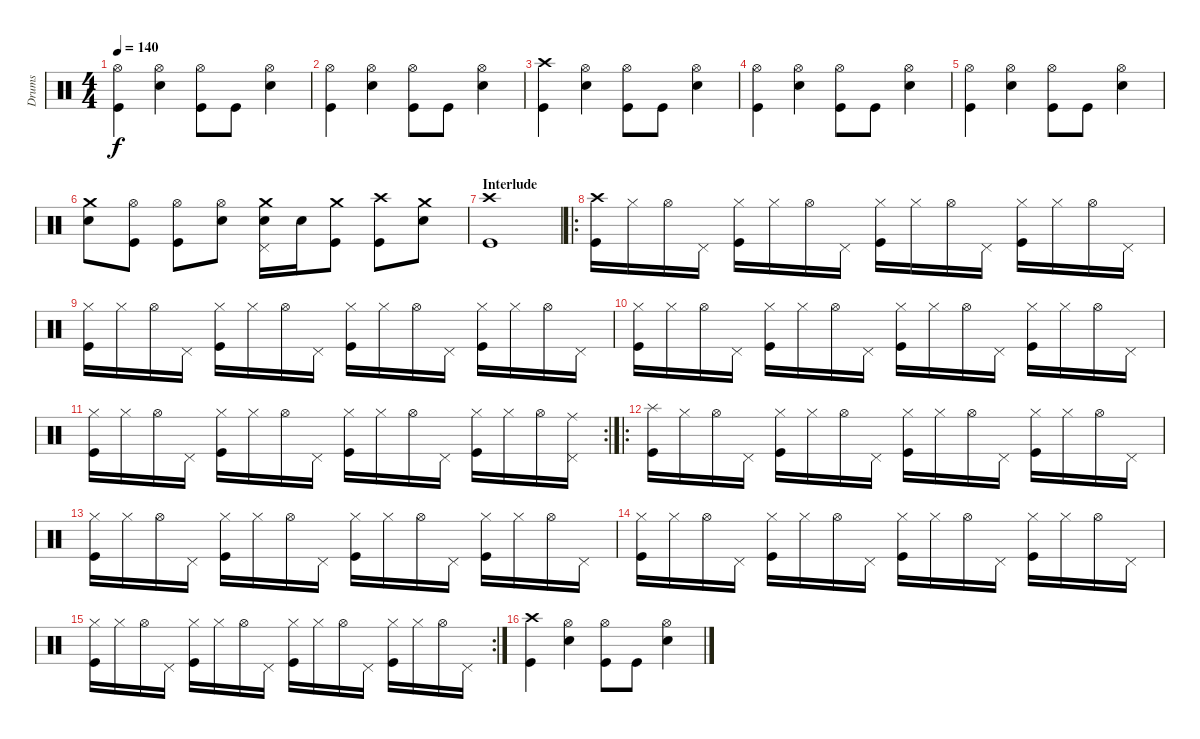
\track ("Drums" "Drums") {instrument percussion}
\staff {score}
\articulation defaults
\ts (4 4)
\tempo 140
\clef neutral
\ks c
("Hi-Hat (open)" "Kick (hit)").4{dy f} ("Hi-Hat (open)" "Electric Snare (hit)").4 ("Hi-Hat (open)" "Kick (hit)").8 "Kick (hit)".8 ("Hi-Hat (open)" "Electric Snare (hit)").4 |
("Hi-Hat (open)" "Kick (hit)").4 ("Hi-Hat (open)" "Electric Snare (hit)").4 ("Hi-Hat (open)" "Kick (hit)").8 "Kick (hit)".8 ("Hi-Hat (open)" "Electric Snare (hit)").4 |
("Crash high (hit)" "Kick (hit)").4 ("Hi-Hat (open)" "Electric Snare (hit)").4 ("Hi-Hat (open)" "Kick (hit)").8 "Kick (hit)".8 ("Hi-Hat (open)" "Electric Snare (hit)").4 |
("Hi-Hat (open)" "Kick (hit)").4 ("Hi-Hat (open)" "Electric Snare (hit)").4 ("Hi-Hat (open)" "Kick (hit)").8 "Kick (hit)".8 ("Hi-Hat (open)" "Electric Snare (hit)").4 |
("Hi-Hat (open)" "Kick (hit)").4 ("Hi-Hat (open)" "Electric Snare (hit)").4 ("Hi-Hat (open)" "Kick (hit)").8 "Kick (hit)".8 ("Hi-Hat (open)" "Electric Snare (hit)").4 |
("Crash medium (hit)" "Electric Snare (hit)").8 ("Hi-Hat (open)" "Kick (hit)").8 ("Hi-Hat (open)" "Kick (hit)").8 ("Hi-Hat (open)" "Electric Snare (hit)").8 ("Crash medium (hit)" "Pedal Hi-Hat (hit)" "Electric Snare (hit)").16 "Electric Snare (hit)".16 ("Crash medium (hit)" "Kick (hit)").8 ("Crash high (hit)" "Kick (hit)").8 ("Crash medium (hit)" "Electric Snare (hit)").8 |
\section ("" "Interlude")
("Crash high (hit)" "Kick (hit)").1 |
\ro
("Crash high (hit)" "Kick (hit)").16 "Hi-Hat (closed)".16 "Hi-Hat (open)".16 "Pedal Hi-Hat (hit)".16 ("Hi-Hat (closed)" "Kick (hit)").16 "Hi-Hat (closed)".16 "Hi-Hat (open)".16 "Pedal Hi-Hat (hit)".16 ("Hi-Hat (closed)" "Kick (hit)").16 "Hi-Hat (closed)".16 "Hi-Hat (open)".16 "Pedal Hi-Hat (hit)".16 ("Hi-Hat (closed)" "Kick (hit)").16 "Hi-Hat (closed)".16 "Hi-Hat (open)".16 "Pedal Hi-Hat (hit)".16 |
("Hi-Hat (closed)" "Kick (hit)").16 "Hi-Hat (closed)".16 "Hi-Hat (open)".16 "Pedal Hi-Hat (hit)".16 ("Hi-Hat (closed)" "Kick (hit)").16 "Hi-Hat (closed)".16 "Hi-Hat (open)".16 "Pedal Hi-Hat (hit)".16 ("Hi-Hat (closed)" "Kick (hit)").16 "Hi-Hat (closed)".16 "Hi-Hat (open)".16 "Pedal Hi-Hat (hit)".16 ("Hi-Hat (closed)" "Kick (hit)").16 "Hi-Hat (closed)".16 "Hi-Hat (open)".16 "Pedal Hi-Hat (hit)".16 |
("Hi-Hat (closed)" "Kick (hit)").16 "Hi-Hat (closed)".16 "Hi-Hat (open)".16 "Pedal Hi-Hat (hit)".16 ("Hi-Hat (closed)" "Kick (hit)").16 "Hi-Hat (closed)".16 "Hi-Hat (open)".16 "Pedal Hi-Hat (hit)".16 ("Hi-Hat (closed)" "Kick (hit)").16 "Hi-Hat (closed)".16 "Hi-Hat (open)".16 "Pedal Hi-Hat (hit)".16 ("Hi-Hat (closed)" "Kick (hit)").16 "Hi-Hat (closed)".16 "Hi-Hat (open)".16 "Pedal Hi-Hat (hit)".16 |
\rc 2
("Hi-Hat (closed)" "Kick (hit)").16 "Hi-Hat (closed)".16 "Hi-Hat (open)".16 "Pedal Hi-Hat (hit)".16 ("Hi-Hat (closed)" "Kick (hit)").16 "Hi-Hat (closed)".16 "Hi-Hat (open)".16 "Pedal Hi-Hat (hit)".16 ("Hi-Hat (closed)" "Kick (hit)").16 "Hi-Hat (closed)".16 "Hi-Hat (open)".16 "Pedal Hi-Hat (hit)".16 ("Hi-Hat (closed)" "Kick (hit)").16 "Hi-Hat (closed)".16 "Hi-Hat (open)".16 ("Ride (middle)" "Pedal Hi-Hat (hit)").16 |
\ro
("Splash (hit)" "Kick (hit)").16 "Hi-Hat (closed)".16 "Hi-Hat (open)".16 "Pedal Hi-Hat (hit)".16 ("Hi-Hat (closed)" "Kick (hit)").16 "Hi-Hat (closed)".16 "Hi-Hat (open)".16 "Pedal Hi-Hat (hit)".16 ("Hi-Hat (closed)" "Kick (hit)").16 "Hi-Hat (closed)".16 "Hi-Hat (open)".16 "Pedal Hi-Hat (hit)".16 ("Hi-Hat (closed)" "Kick (hit)").16 "Hi-Hat (closed)".16 "Hi-Hat (open)".16 "Pedal Hi-Hat (hit)".16 |
("Hi-Hat (closed)" "Kick (hit)").16 "Hi-Hat (closed)".16 "Hi-Hat (open)".16 "Pedal Hi-Hat (hit)".16 ("Hi-Hat (closed)" "Kick (hit)").16 "Hi-Hat (closed)".16 "Hi-Hat (open)".16 "Pedal Hi-Hat (hit)".16 ("Hi-Hat (closed)" "Kick (hit)").16 "Hi-Hat (closed)".16 "Hi-Hat (open)".16 "Pedal Hi-Hat (hit)".16 ("Hi-Hat (closed)" "Kick (hit)").16 "Hi-Hat (closed)".16 "Hi-Hat (open)".16 "Pedal Hi-Hat (hit)".16 |
("Hi-Hat (closed)" "Kick (hit)").16 "Hi-Hat (closed)".16 "Hi-Hat (open)".16 "Pedal Hi-Hat (hit)".16 ("Hi-Hat (closed)" "Kick (hit)").16 "Hi-Hat (closed)".16 "Hi-Hat (open)".16 "Pedal Hi-Hat (hit)".16 ("Hi-Hat (closed)" "Kick (hit)").16 "Hi-Hat (closed)".16 "Hi-Hat (open)".16 "Pedal Hi-Hat (hit)".16 ("Hi-Hat (closed)" "Kick (hit)").16 "Hi-Hat (closed)".16 "Hi-Hat (open)".16 "Pedal Hi-Hat (hit)".16 |
\rc 2
("Hi-Hat (closed)" "Kick (hit)").16 "Hi-Hat (closed)".16 "Hi-Hat (open)".16 "Pedal Hi-Hat (hit)".16 ("Hi-Hat (closed)" "Kick (hit)").16 "Hi-Hat (closed)".16 "Hi-Hat (open)".16 "Pedal Hi-Hat (hit)".16 ("Hi-Hat (closed)" "Kick (hit)").16 "Hi-Hat (closed)".16 "Hi-Hat (open)".16 "Pedal Hi-Hat (hit)".16 ("Hi-Hat (closed)" "Kick (hit)").16 "Hi-Hat (closed)".16 "Hi-Hat (open)".16 "Pedal Hi-Hat (hit)".16 |
("Crash high (hit)" "Kick (hit)").4 ("Hi-Hat (open)" "Electric Snare (hit)").4 ("Hi-Hat (open)" "Kick (hit)").8 "Kick (hit)".8 ("Hi-Hat (open)" "Electric Snare (hit)").4
